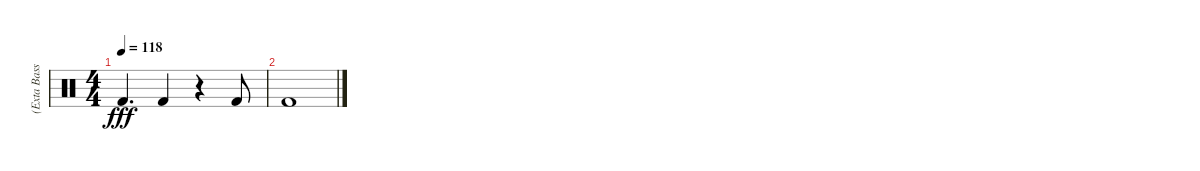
\track ("(Exta Bass Boost)Eddie Fisher" "(Exta Bass") {instrument percussion}
\staff {score}
\articulation defaults
\ts (4 4)
\tempo 118
\clef neutral
\ks c "Kick (hit) 2".4{d dy fff} "Kick (hit) 2".4
r.4 "Kick (hit) 2".8 |
"Kick (hit) 2".1
